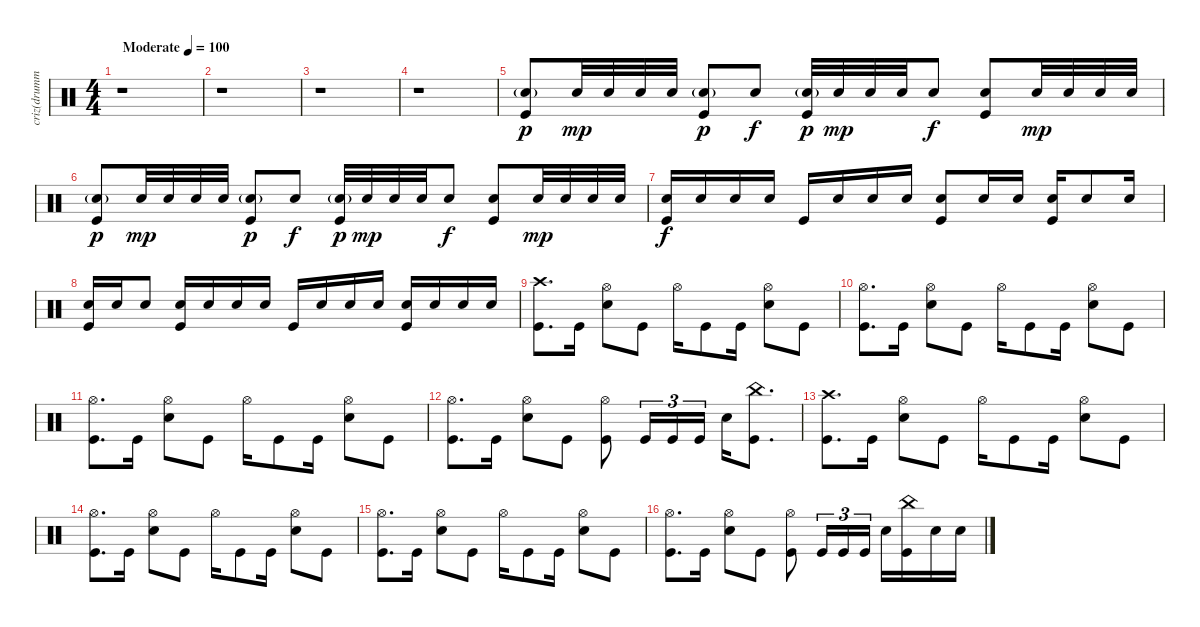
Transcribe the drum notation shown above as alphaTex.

\track ("criz(drummer)" "criz(drumm") {instrument percussion}
\staff {score}
\articulation defaults
\ts (4 4)
\tempo (100 "Moderate")
\clef neutral
\ks c
r.1{dy p} |
r.1 |
r.1 |
r.1 |
("Electric Snare (hit)"{g} "Kick (hit)").8 "Electric Snare (hit)".32{dy mp} "Electric Snare (hit)".32 "Electric Snare (hit)".32 "Electric Snare (hit)".32 ("Electric Snare (hit)"{g} "Kick (hit)").8{dy p} "Electric Snare (hit)".8{dy f} ("Electric Snare (hit)"{g} "Kick (hit)").32{dy p} "Electric Snare (hit)".32{dy mp} "Electric Snare (hit)".32 "Electric Snare (hit)".32 "Electric Snare (hit)".8{dy f} ("Electric Snare (hit)" "Kick (hit)").8 "Electric Snare (hit)".32{dy mp} "Electric Snare (hit)".32 "Electric Snare (hit)".32 "Electric Snare (hit)".32 |
("Electric Snare (hit)"{g} "Kick (hit)").8{dy p} "Electric Snare (hit)".32{dy mp} "Electric Snare (hit)".32 "Electric Snare (hit)".32 "Electric Snare (hit)".32 ("Electric Snare (hit)"{g} "Kick (hit)").8{dy p} "Electric Snare (hit)".8{dy f} ("Electric Snare (hit)"{g} "Kick (hit)").32{dy p} "Electric Snare (hit)".32{dy mp} "Electric Snare (hit)".32 "Electric Snare (hit)".32 "Electric Snare (hit)".8{dy f} ("Electric Snare (hit)" "Kick (hit)").8 "Electric Snare (hit)".32{dy mp} "Electric Snare (hit)".32 "Electric Snare (hit)".32 "Electric Snare (hit)".32 |
("Electric Snare (hit)" "Kick (hit)").16{dy f} "Electric Snare (hit)".16 "Electric Snare (hit)".16 "Electric Snare (hit)".16 "Kick (hit)".16 "Electric Snare (hit)".16 "Electric Snare (hit)".16 "Electric Snare (hit)".16 ("Electric Snare (hit)" "Kick (hit)").8 "Electric Snare (hit)".16 "Electric Snare (hit)".16 ("Electric Snare (hit)" "Kick (hit)").16 "Electric Snare (hit)".8 "Electric Snare (hit)".16 |
("Electric Snare (hit)" "Kick (hit)").16 "Electric Snare (hit)".16 "Electric Snare (hit)".8 ("Electric Snare (hit)" "Kick (hit)").16 "Electric Snare (hit)".16 "Electric Snare (hit)".16 "Electric Snare (hit)".16 "Kick (hit)".16 "Electric Snare (hit)".16 "Electric Snare (hit)".16 "Electric Snare (hit)".16 ("Electric Snare (hit)" "Kick (hit)").16 "Electric Snare (hit)".16 "Electric Snare (hit)".16 "Electric Snare (hit)".16 |
("Crash high (hit)" "Kick (hit)").8{d} "Kick (hit)".16 ("Hi-Hat (open)" "Electric Snare (hit)").8 "Kick (hit)".8 "Hi-Hat (open)".16 "Kick (hit)".8 "Kick (hit)".16 ("Hi-Hat (open)" "Electric Snare (hit)").8 "Kick (hit)".8 |
("Hi-Hat (open)" "Kick (hit)").8{d} "Kick (hit)".16 ("Hi-Hat (open)" "Electric Snare (hit)").8 "Kick (hit)".8 "Hi-Hat (open)".16 "Kick (hit)".8 "Kick (hit)".16 ("Hi-Hat (open)" "Electric Snare (hit)").8 "Kick (hit)".8 |
("Hi-Hat (open)" "Kick (hit)").8{d} "Kick (hit)".16 ("Hi-Hat (open)" "Electric Snare (hit)").8 "Kick (hit)".8 "Hi-Hat (open)".16 "Kick (hit)".8 "Kick (hit)".16 ("Hi-Hat (open)" "Electric Snare (hit)").8 "Kick (hit)".8 |
("Hi-Hat (open)" "Kick (hit)").8{d} "Kick (hit)".16 ("Hi-Hat (open)" "Electric Snare (hit)").8 "Kick (hit)".8 ("Hi-Hat (open)" "Kick (hit)").8 "Kick (hit)".16{tu (3 2)} "Kick (hit)".16{tu (3 2)} "Kick (hit)".16{tu (3 2)} "Electric Snare (hit)".16 ("China (hit)" "Kick (hit)").8{d} |
("Crash high (hit)" "Kick (hit)").8{d} "Kick (hit)".16 ("Hi-Hat (open)" "Electric Snare (hit)").8 "Kick (hit)".8 "Hi-Hat (open)".16 "Kick (hit)".8 "Kick (hit)".16 ("Hi-Hat (open)" "Electric Snare (hit)").8 "Kick (hit)".8 |
("Hi-Hat (open)" "Kick (hit)").8{d} "Kick (hit)".16 ("Hi-Hat (open)" "Electric Snare (hit)").8 "Kick (hit)".8 "Hi-Hat (open)".16 "Kick (hit)".8 "Kick (hit)".16 ("Hi-Hat (open)" "Electric Snare (hit)").8 "Kick (hit)".8 |
("Hi-Hat (open)" "Kick (hit)").8{d} "Kick (hit)".16 ("Hi-Hat (open)" "Electric Snare (hit)").8 "Kick (hit)".8 "Hi-Hat (open)".16 "Kick (hit)".8 "Kick (hit)".16 ("Hi-Hat (open)" "Electric Snare (hit)").8 "Kick (hit)".8 |
("Hi-Hat (open)" "Kick (hit)").8{d} "Kick (hit)".16 ("Hi-Hat (open)" "Electric Snare (hit)").8 "Kick (hit)".8 ("Hi-Hat (open)" "Kick (hit)").8 "Kick (hit)".16{tu (3 2)} "Kick (hit)".16{tu (3 2)} "Kick (hit)".16{tu (3 2)} "Electric Snare (hit)".16 ("China (hit)" "Kick (hit)").16 "Electric Snare (hit)".16 "Electric Snare (hit)".16
